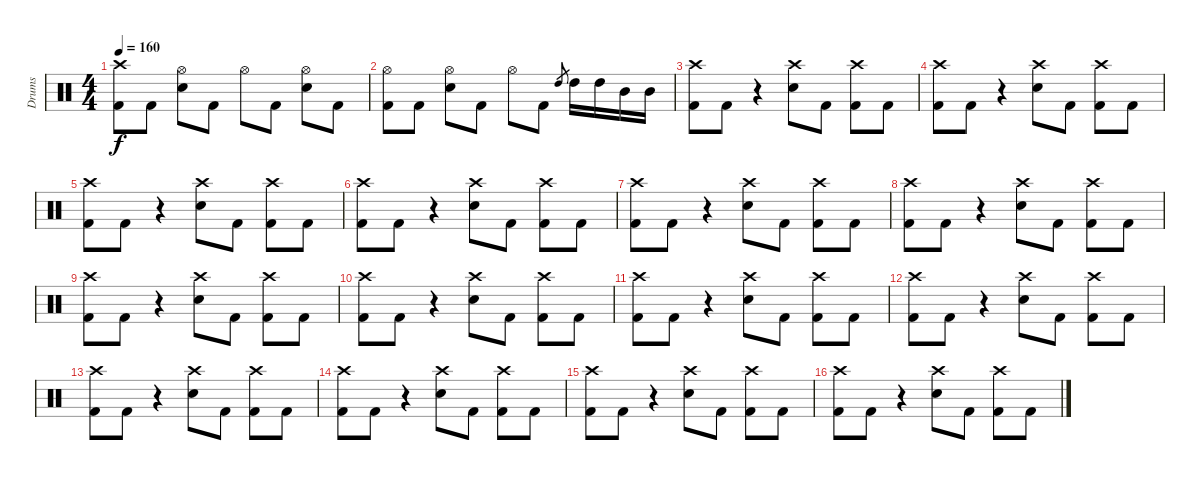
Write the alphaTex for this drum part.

\track ("Drums" "Drums") {instrument percussion}
\staff {score}
\articulation defaults
\ts (4 4)
\tempo 160
\clef neutral
\ks c
("Crash high (hit)" "Kick (hit) 2").8{dy f} "Kick (hit) 2".8 ("Hi-Hat (open)" "Electric Snare (hit)").8 "Kick (hit) 2".8 "Hi-Hat (open)".8 "Kick (hit) 2".8 ("Hi-Hat (open)" "Electric Snare (hit)").8 "Kick (hit) 2".8 |
("Hi-Hat (open)" "Kick (hit) 2").8 "Kick (hit) 2".8 ("Hi-Hat (open)" "Electric Snare (hit)").8 "Kick (hit) 2".8 "Hi-Hat (open)".8 "Kick (hit) 2".8 "High Tom (hit)".8{gr} "High Tom (hit)".16 "High Tom (hit)".16 "Mid Tom (hit)".16 "Mid Tom (hit)".16 |
\section ("" "")
("Crash high (hit)" "Kick (hit) 2").8 "Kick (hit) 2".8 r.4 ("Crash high (hit)" "Electric Snare (hit)").8 "Kick (hit) 2".8 ("Crash high (hit)" "Kick (hit) 2").8 "Kick (hit) 2".8 |
("Crash high (hit)" "Kick (hit) 2").8 "Kick (hit) 2".8 r.4 ("Crash high (hit)" "Electric Snare (hit)").8 "Kick (hit) 2".8 ("Crash high (hit)" "Kick (hit) 2").8 "Kick (hit) 2".8 |
("Crash high (hit)" "Kick (hit) 2").8 "Kick (hit) 2".8 r.4 ("Crash high (hit)" "Electric Snare (hit)").8 "Kick (hit) 2".8 ("Crash high (hit)" "Kick (hit) 2").8 "Kick (hit) 2".8 |
("Crash high (hit)" "Kick (hit) 2").8 "Kick (hit) 2".8 r.4 ("Crash high (hit)" "Electric Snare (hit)").8 "Kick (hit) 2".8 ("Crash high (hit)" "Kick (hit) 2").8 "Kick (hit) 2".8 |
("Crash high (hit)" "Kick (hit) 2").8 "Kick (hit) 2".8 r.4 ("Crash high (hit)" "Electric Snare (hit)").8 "Kick (hit) 2".8 ("Crash high (hit)" "Kick (hit) 2").8 "Kick (hit) 2".8 |
("Crash high (hit)" "Kick (hit) 2").8 "Kick (hit) 2".8 r.4 ("Crash high (hit)" "Electric Snare (hit)").8 "Kick (hit) 2".8 ("Crash high (hit)" "Kick (hit) 2").8 "Kick (hit) 2".8 |
("Crash high (hit)" "Kick (hit) 2").8 "Kick (hit) 2".8 r.4 ("Crash high (hit)" "Electric Snare (hit)").8 "Kick (hit) 2".8 ("Crash high (hit)" "Kick (hit) 2").8 "Kick (hit) 2".8 |
("Crash high (hit)" "Kick (hit) 2").8 "Kick (hit) 2".8 r.4 ("Crash high (hit)" "Electric Snare (hit)").8 "Kick (hit) 2".8 ("Crash high (hit)" "Kick (hit) 2").8 "Kick (hit) 2".8 |
("Crash high (hit)" "Kick (hit) 2").8 "Kick (hit) 2".8 r.4 ("Crash high (hit)" "Electric Snare (hit)").8 "Kick (hit) 2".8 ("Crash high (hit)" "Kick (hit) 2").8 "Kick (hit) 2".8 |
("Crash high (hit)" "Kick (hit) 2").8 "Kick (hit) 2".8 r.4 ("Crash high (hit)" "Electric Snare (hit)").8 "Kick (hit) 2".8 ("Crash high (hit)" "Kick (hit) 2").8 "Kick (hit) 2".8 |
("Crash high (hit)" "Kick (hit) 2").8 "Kick (hit) 2".8 r.4 ("Crash high (hit)" "Electric Snare (hit)").8 "Kick (hit) 2".8 ("Crash high (hit)" "Kick (hit) 2").8 "Kick (hit) 2".8 |
("Crash high (hit)" "Kick (hit) 2").8 "Kick (hit) 2".8 r.4 ("Crash high (hit)" "Electric Snare (hit)").8 "Kick (hit) 2".8 ("Crash high (hit)" "Kick (hit) 2").8 "Kick (hit) 2".8 |
("Crash high (hit)" "Kick (hit) 2").8 "Kick (hit) 2".8 r.4 ("Crash high (hit)" "Electric Snare (hit)").8 "Kick (hit) 2".8 ("Crash high (hit)" "Kick (hit) 2").8 "Kick (hit) 2".8 |
("Crash high (hit)" "Kick (hit) 2").8 "Kick (hit) 2".8 r.4 ("Crash high (hit)" "Electric Snare (hit)").8 "Kick (hit) 2".8 ("Crash high (hit)" "Kick (hit) 2").8 "Kick (hit) 2".8
